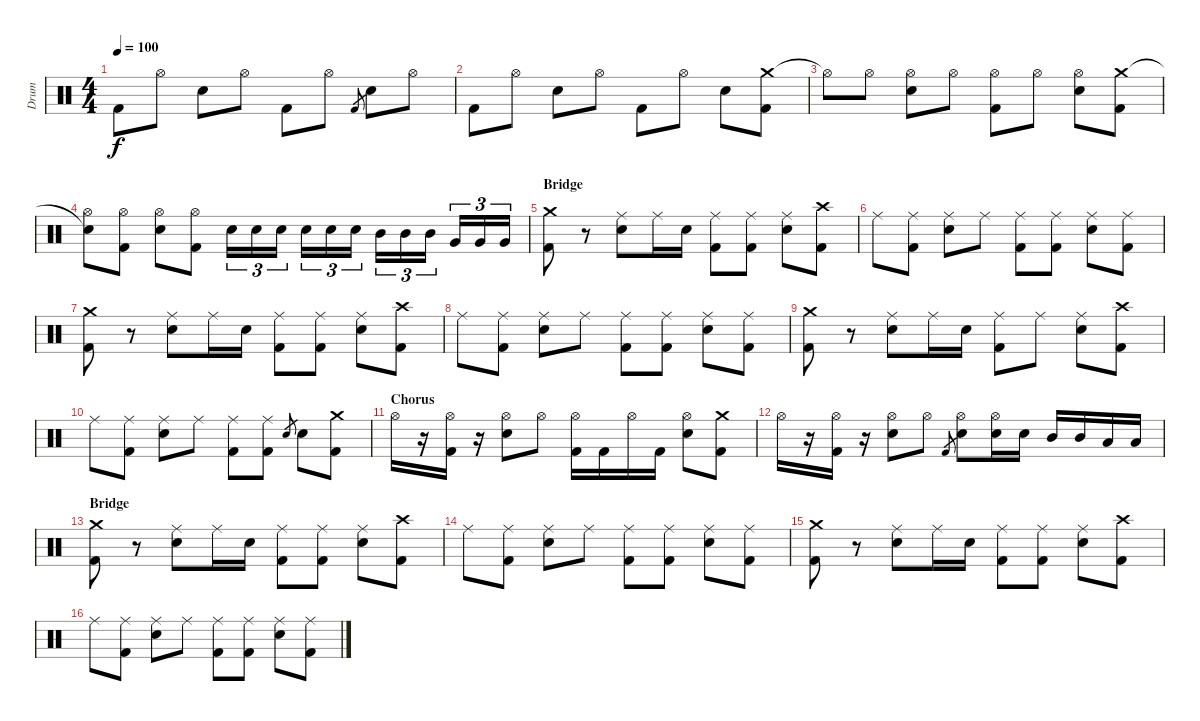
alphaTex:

\track ("Drum" "Drum") {instrument percussion}
\staff {score}
\articulation defaults
\ts (4 4)
\tempo 100
\clef neutral
\ks c "Kick (hit) 2".8{dy f} "Hi-Hat (open)".8 "Snare (hit) 2".8 "Hi-Hat (open)".8 "Kick (hit) 2".8 "Hi-Hat (open)".8 "Kick (hit) 2".8{gr} "Snare (hit) 2".8 "Hi-Hat (open)".8
|
"Kick (hit) 2".8 "Hi-Hat (open)".8 "Snare (hit) 2".8 "Hi-Hat (open)".8 "Kick (hit) 2".8 "Hi-Hat (open)".8 "Snare (hit) 2".8 ("Crash medium (hit)" "Kick (hit) 2").8 |
"Hi-Hat (open)"{t}.8 "Hi-Hat (open)".8 ("Hi-Hat (open)" "Snare (hit) 2").8 "Hi-Hat (open)".8 ("Hi-Hat (open)" "Kick (hit) 2").8 "Hi-Hat (open)".8 ("Hi-Hat (open)" "Snare (hit) 2").8 ("Crash medium (hit)" "Kick (hit) 2").8 |
("Snare (hit)"{t} "Hi-Hat (open)").8 ("Hi-Hat (open)" "Kick (hit) 2").8 ("Hi-Hat (open)" "Snare (hit) 2").8 ("Hi-Hat (open)" "Kick (hit) 2").8 "Snare (hit) 2".16{tu (3 2)} "Snare (hit) 2".16{tu (3 2)} "Snare (hit) 2".16{tu (3 2)} "Snare (hit) 2".16{tu (3 2)} "Snare (hit) 2".16{tu (3 2)} "Snare (hit) 2".16{tu (3 2)} "Mid Tom (hit)".16{tu (3 2)} "Mid Tom (hit)".16{tu (3 2)} "Mid Tom (hit)".16{tu (3 2)} "Very Low Tom (hit)".16{tu (3 2)} "Very Low Tom (hit)".16{tu (3 2)} "Very Low Tom (hit)".16{tu (3 2)} |
\section ("" "Bridge")
("Crash medium (hit)" "Kick (hit) 2").8 r.8 ("Ride (middle)" "Snare (hit) 2").8 "Ride (middle)".16 "Snare (hit) 2".16 ("Ride (middle)" "Kick (hit) 2").8 ("Ride (middle)" "Kick (hit) 2").8 ("Ride (middle)" "Snare (hit) 2").8 ("Crash high (hit)" "Kick (hit) 2").8 |
"Ride (middle)".8 ("Ride (middle)" "Kick (hit) 2").8 ("Ride (middle)" "Snare (hit) 2").8 "Ride (middle)".8 ("Ride (middle)" "Kick (hit) 2").8 ("Ride (middle)" "Kick (hit) 2").8 ("Ride (middle)" "Snare (hit) 2").8 ("Ride (middle)" "Kick (hit) 2").8 |
("Crash medium (hit)" "Kick (hit) 2").8 r.8 ("Ride (middle)" "Snare (hit) 2").8 "Ride (middle)".16 "Snare (hit) 2".16 ("Ride (middle)" "Kick (hit) 2").8 ("Ride (middle)" "Kick (hit) 2").8 ("Ride (middle)" "Snare (hit) 2").8 ("Crash high (hit)" "Kick (hit) 2").8 |
"Ride (middle)".8 ("Ride (middle)" "Kick (hit) 2").8 ("Ride (middle)" "Snare (hit) 2").8 "Ride (middle)".8 ("Ride (middle)" "Kick (hit) 2").8 ("Ride (middle)" "Kick (hit) 2").8 ("Ride (middle)" "Snare (hit) 2").8 ("Ride (middle)" "Kick (hit) 2").8 |
("Crash medium (hit)" "Kick (hit) 2").8 r.8 ("Ride (middle)" "Snare (hit) 2").8 "Ride (middle)".16 "Snare (hit) 2".16 ("Ride (middle)" "Kick (hit) 2").8 "Ride (middle)".8 ("Ride (middle)" "Snare (hit) 2").8 ("Crash high (hit)" "Kick (hit) 2").8 |
"Ride (middle)".8 ("Ride (middle)" "Kick (hit) 2").8 ("Ride (middle)" "Snare (hit) 2").8 "Ride (middle)".8 ("Ride (middle)" "Kick (hit) 2").8 ("Ride (middle)" "Kick (hit) 2").8 "Snare (hit) 2".8{gr} "Snare (hit) 2".8 ("Crash medium (hit)" "Kick (hit) 2").8 |
\section ("" "Chorus")
"Hi-Hat (open)".16 r.16 ("Hi-Hat (open)" "Kick (hit) 2").16 r.16 ("Hi-Hat (open)" "Snare (hit) 2").8 "Hi-Hat (open)".8 ("Hi-Hat (open)" "Kick (hit) 2").16 "Kick (hit) 2".16 "Hi-Hat (open)".16 "Kick (hit) 2".16 ("Hi-Hat (open)" "Snare (hit) 2").8 ("Crash medium (hit)" "Kick (hit) 2").8 |
"Hi-Hat (open)".16 r.16 ("Hi-Hat (open)" "Kick (hit) 2").16 r.16 ("Hi-Hat (open)" "Snare (hit) 2").8 "Hi-Hat (open)".8 "Kick (hit) 2".8{gr} ("Hi-Hat (open)" "Snare (hit) 2").8 ("Hi-Hat (open)" "Snare (hit) 2").16 "Snare (hit) 2".16 "Mid Tom (hit)".16 "Mid Tom (hit)".16 "Low Tom (hit)".16 "Low Tom (hit)".16 |
\section ("" "Bridge")
("Crash medium (hit)" "Kick (hit) 2").8 r.8 ("Ride (middle)" "Snare (hit) 2").8 "Ride (middle)".16 "Snare (hit) 2".16 ("Ride (middle)" "Kick (hit) 2").8 ("Ride (middle)" "Kick (hit) 2").8 ("Ride (middle)" "Snare (hit) 2").8 ("Crash high (hit)" "Kick (hit) 2").8 |
"Ride (middle)".8 ("Ride (middle)" "Kick (hit) 2").8 ("Ride (middle)" "Snare (hit) 2").8 "Ride (middle)".8 ("Ride (middle)" "Kick (hit) 2").8 ("Ride (middle)" "Kick (hit) 2").8 ("Ride (middle)" "Snare (hit) 2").8 ("Ride (middle)" "Kick (hit) 2").8 |
("Crash medium (hit)" "Kick (hit) 2").8 r.8 ("Ride (middle)" "Snare (hit) 2").8 "Ride (middle)".16 "Snare (hit) 2".16 ("Ride (middle)" "Kick (hit) 2").8 ("Ride (middle)" "Kick (hit) 2").8 ("Ride (middle)" "Snare (hit) 2").8 ("Crash high (hit)" "Kick (hit) 2").8 |
"Ride (middle)".8 ("Ride (middle)" "Kick (hit) 2").8 ("Ride (middle)" "Snare (hit) 2").8 "Ride (middle)".8 ("Ride (middle)" "Kick (hit) 2").8 ("Ride (middle)" "Kick (hit) 2").8 ("Ride (middle)" "Snare (hit) 2").8 ("Ride (middle)" "Kick (hit) 2").8
